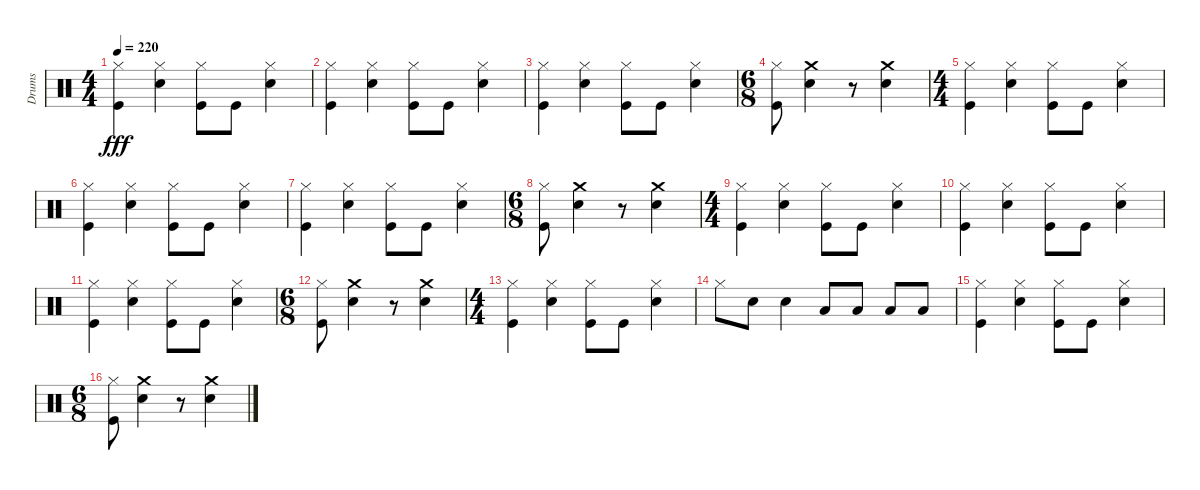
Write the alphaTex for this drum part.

\track ("Drums" "Drums") {instrument percussion}
\staff {score}
\articulation defaults
\ts (4 4)
\tempo 220
\clef neutral
\ks c
("Kick (hit)" "Hi-Hat (closed)").4{dy fff} ("Snare (hit) 2" "Hi-Hat (closed)").4 ("Kick (hit)" "Hi-Hat (closed)").8 "Kick (hit)".8 ("Snare (hit) 2" "Hi-Hat (closed)").4 |
("Hi-Hat (closed)" "Kick (hit)").4 ("Snare (hit) 2" "Hi-Hat (closed)").4 ("Kick (hit)" "Hi-Hat (closed)").8 "Kick (hit)".8 ("Snare (hit) 2" "Hi-Hat (closed)").4 |
("Kick (hit)" "Hi-Hat (closed)").4 ("Snare (hit) 2" "Hi-Hat (closed)").4 ("Hi-Hat (closed)" "Kick (hit)").8 "Kick (hit)".8 ("Snare (hit) 2" "Hi-Hat (closed)").4 |
\ts (6 8)
("Hi-Hat (closed)" "Kick (hit)").8 ("Snare (hit) 2" "Crash medium (hit)").4 r.8 ("Snare (hit) 2" "Crash medium (hit)").4 |
\ts (4 4)
("Kick (hit)" "Hi-Hat (closed)").4 ("Hi-Hat (closed)" "Snare (hit) 2").4 ("Kick (hit)" "Hi-Hat (closed)").8 "Kick (hit)".8 ("Snare (hit) 2" "Hi-Hat (closed)").4 |
("Kick (hit)" "Hi-Hat (closed)").4 ("Snare (hit) 2" "Hi-Hat (closed)").4 ("Kick (hit)" "Hi-Hat (closed)").8 "Kick (hit)".8 ("Snare (hit) 2" "Hi-Hat (closed)").4 |
("Kick (hit)" "Hi-Hat (closed)").4 ("Snare (hit) 2" "Hi-Hat (closed)").4 ("Kick (hit)" "Hi-Hat (closed)").8 "Kick (hit)".8 ("Snare (hit) 2" "Hi-Hat (closed)").4 |
\ts (6 8)
("Hi-Hat (closed)" "Kick (hit)").8 ("Snare (hit) 2" "Crash medium (hit)").4 r.8 ("Snare (hit) 2" "Crash medium (hit)").4 |
\ts (4 4)
("Kick (hit)" "Hi-Hat (closed)").4 ("Snare (hit) 2" "Hi-Hat (closed)").4 ("Kick (hit)" "Hi-Hat (closed)").8 "Kick (hit)".8 ("Snare (hit) 2" "Hi-Hat (closed)").4 |
("Hi-Hat (closed)" "Kick (hit)").4 ("Snare (hit) 2" "Hi-Hat (closed)").4 ("Kick (hit)" "Hi-Hat (closed)").8 "Kick (hit)".8 ("Snare (hit) 2" "Hi-Hat (closed)").4 |
("Kick (hit)" "Hi-Hat (closed)").4 ("Snare (hit) 2" "Hi-Hat (closed)").4 ("Hi-Hat (closed)" "Kick (hit)").8 "Kick (hit)".8 ("Snare (hit) 2" "Hi-Hat (closed)").4 |
\ts (6 8)
("Hi-Hat (closed)" "Kick (hit)").8 ("Snare (hit) 2" "Crash medium (hit)").4 r.8 ("Snare (hit) 2" "Crash medium (hit)").4 |
\ts (4 4)
("Kick (hit)" "Hi-Hat (closed)").4 ("Snare (hit) 2" "Hi-Hat (closed)").4 ("Kick (hit)" "Hi-Hat (closed)").8 "Kick (hit)".8 ("Snare (hit) 2" "Hi-Hat (closed)").4 |
"Hi-Hat (closed)".8 "Snare (hit) 2".8 "Snare (hit) 2".4 "Low Tom (hit)".8 "Low Tom (hit)".8 "Low Tom (hit)".8 "Low Tom (hit)".8 |
("Kick (hit)" "Hi-Hat (closed)").4 ("Hi-Hat (closed)" "Snare (hit) 2").4 ("Kick (hit)" "Hi-Hat (closed)").8 "Kick (hit)".8 ("Snare (hit) 2" "Hi-Hat (closed)").4 |
\ts (6 8)
("Hi-Hat (closed)" "Kick (hit)").8 ("Snare (hit) 2" "Crash medium (hit)").4 r.8 ("Snare (hit) 2" "Crash medium (hit)").4
